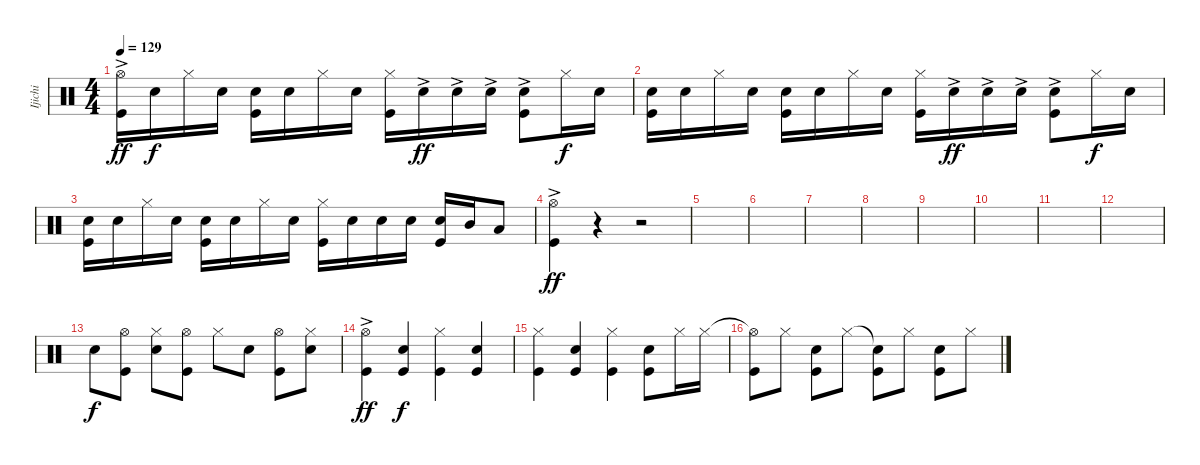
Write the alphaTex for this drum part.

\track ("Ijichi" "Ijichi") {instrument percussion}
\staff {score}
\articulation defaults
\ts (4 4)
\tempo 129
\clef neutral
\ks c
("Hi-Hat (open)"{ac} "Kick (hit)").16{dy ff} "Snare (hit) 2".16{dy f} "Hi-Hat (closed)".16 "Snare (hit) 2".16 ("Snare (hit) 2" "Kick (hit)").16 "Snare (hit) 2".16 "Hi-Hat (closed)".16 "Snare (hit) 2".16 ("Hi-Hat (closed)" "Kick (hit)").16 "Snare (hit) 2"{ac}.16{dy ff} "Snare (hit) 2"{ac}.16 "Snare (hit) 2"{ac}.16 ("Snare (hit) 2"{ac} "Kick (hit)").8 "Hi-Hat (closed)".16{dy f} "Snare (hit) 2".16 |
("Snare (hit) 2" "Kick (hit)").16 "Snare (hit) 2".16 "Hi-Hat (closed)".16 "Snare (hit) 2".16 ("Snare (hit) 2" "Kick (hit)").16 "Snare (hit) 2".16 "Hi-Hat (closed)".16 "Snare (hit) 2".16 ("Hi-Hat (closed)" "Kick (hit)").16 "Snare (hit) 2"{ac}.16{dy ff} "Snare (hit) 2"{ac}.16 "Snare (hit) 2"{ac}.16 ("Snare (hit) 2"{ac} "Kick (hit)").8 "Hi-Hat (closed)".16{dy f} "Snare (hit) 2".16 |
("Snare (hit) 2" "Kick (hit)").16 "Snare (hit) 2".16 "Hi-Hat (closed)".16 "Snare (hit) 2".16 ("Snare (hit) 2" "Kick (hit)").16 "Snare (hit) 2".16 "Hi-Hat (closed)".16 "Snare (hit) 2".16 ("Hi-Hat (closed)" "Kick (hit)").16 "Snare (hit) 2".16 "Snare (hit) 2".16 "Snare (hit) 2".16 ("Snare (hit) 2" "Kick (hit)").16 "Mid Tom (hit)".16 "Low Tom (hit)".8 |
("Hi-Hat (open)"{ac} "Kick (hit)").4{dy ff} r.4 r.2 |
|
|
|
|
|
|
|
|
"Snare (hit) 2".8{dy f} ("Hi-Hat (open)" "Kick (hit)").8 ("Hi-Hat (closed)" "Snare (hit) 2").8 ("Hi-Hat (open)" "Kick (hit)").8 "Hi-Hat (closed)".8 "Snare (hit) 2".8 ("Hi-Hat (open)" "Kick (hit)").8 ("Hi-Hat (closed)" "Snare (hit) 2").8 |
("Hi-Hat (open)"{ac} "Kick (hit)").4{dy ff} ("Snare (hit) 2" "Kick (hit)").4{dy f} ("Hi-Hat (closed)" "Kick (hit)").4 ("Snare (hit) 2" "Kick (hit)").4 |
("Hi-Hat (closed)" "Kick (hit)").4 ("Snare (hit) 2" "Kick (hit)").4 ("Hi-Hat (closed)" "Kick (hit)").4 ("Snare (hit) 2" "Kick (hit)").8 "Hi-Hat (closed)".16 "Hi-Hat (closed)".16 |
("Hi-Hat (open)"{t} "Kick (hit)").8 "Hi-Hat (closed)".8 ("Snare (hit) 2" "Kick (hit)").8 "Hi-Hat (closed)".8 ("Snare (hit)"{t} "Kick (hit)").8 "Hi-Hat (closed)".8 ("Snare (hit) 2" "Kick (hit)").8 "Hi-Hat (closed)".8
